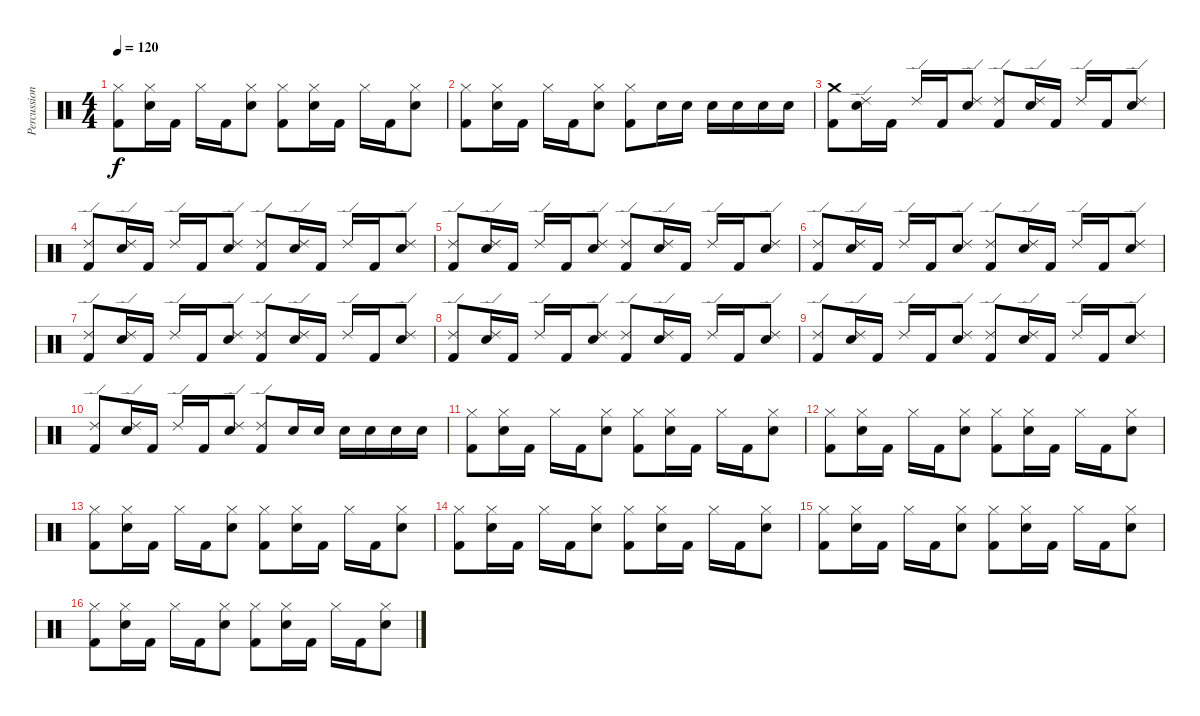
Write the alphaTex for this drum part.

\track ("Percussions" "Percussion") {instrument percussion}
\staff {score}
\articulation defaults
\ts (4 4)
\tempo 120
\clef neutral
\ks c
("Hi-Hat (closed)" "Kick (hit) 2").8{dy f} ("Hi-Hat (closed)" "Snare (hit) 2").16 "Kick (hit) 2".16 "Hi-Hat (closed)".16 "Kick (hit) 2".16 ("Hi-Hat (closed)" "Snare (hit) 2").8 ("Hi-Hat (closed)" "Kick (hit) 2").8 ("Hi-Hat (closed)" "Snare (hit) 2").16 "Kick (hit) 2".16 "Hi-Hat (closed)".16 "Kick (hit) 2".16 ("Hi-Hat (closed)" "Snare (hit) 2").8 |
("Hi-Hat (closed)" "Kick (hit) 2").8 ("Hi-Hat (closed)" "Snare (hit) 2").16 "Kick (hit) 2".16 "Hi-Hat (closed)".16 "Kick (hit) 2".16 ("Hi-Hat (closed)" "Snare (hit) 2").8 ("Hi-Hat (closed)" "Kick (hit) 2").8 "Snare (hit) 2".16 "Snare (hit) 2".16 "Snare (hit) 2".16 "Snare (hit) 2".16 "Snare (hit) 2".16 "Snare (hit) 2".16 |
("Crash medium (hit)" "Kick (hit) 2").8 ("Ride (edge) 2" "Snare (hit) 2").16 "Kick (hit) 2".16 "Ride (edge) 2".16 "Kick (hit) 2".16 ("Ride (edge) 2" "Snare (hit) 2").8 ("Ride (edge) 2" "Kick (hit) 2").8 ("Ride (edge) 2" "Snare (hit) 2").16 "Kick (hit) 2".16 "Ride (edge) 2".16 "Kick (hit) 2".16 ("Ride (edge) 2" "Snare (hit) 2").8 |
("Ride (edge) 2" "Kick (hit) 2").8 ("Ride (edge) 2" "Snare (hit) 2").16 "Kick (hit) 2".16 "Ride (edge) 2".16 "Kick (hit) 2".16 ("Ride (edge) 2" "Snare (hit) 2").8 ("Ride (edge) 2" "Kick (hit) 2").8 ("Ride (edge) 2" "Snare (hit) 2").16 "Kick (hit) 2".16 "Ride (edge) 2".16 "Kick (hit) 2".16 ("Ride (edge) 2" "Snare (hit) 2").8 |
("Ride (edge) 2" "Kick (hit) 2").8 ("Ride (edge) 2" "Snare (hit) 2").16 "Kick (hit) 2".16 "Ride (edge) 2".16 "Kick (hit) 2".16 ("Ride (edge) 2" "Snare (hit) 2").8 ("Ride (edge) 2" "Kick (hit) 2").8 ("Ride (edge) 2" "Snare (hit) 2").16 "Kick (hit) 2".16 "Ride (edge) 2".16 "Kick (hit) 2".16 ("Ride (edge) 2" "Snare (hit) 2").8 |
("Ride (edge) 2" "Kick (hit) 2").8 ("Ride (edge) 2" "Snare (hit) 2").16 "Kick (hit) 2".16 "Ride (edge) 2".16 "Kick (hit) 2".16 ("Ride (edge) 2" "Snare (hit) 2").8 ("Ride (edge) 2" "Kick (hit) 2").8 ("Ride (edge) 2" "Snare (hit) 2").16 "Kick (hit) 2".16 "Ride (edge) 2".16 "Kick (hit) 2".16 ("Ride (edge) 2" "Snare (hit) 2").8 |
("Ride (edge) 2" "Kick (hit) 2").8 ("Ride (edge) 2" "Snare (hit) 2").16 "Kick (hit) 2".16 "Ride (edge) 2".16 "Kick (hit) 2".16 ("Ride (edge) 2" "Snare (hit) 2").8 ("Ride (edge) 2" "Kick (hit) 2").8 ("Ride (edge) 2" "Snare (hit) 2").16 "Kick (hit) 2".16 "Ride (edge) 2".16 "Kick (hit) 2".16 ("Ride (edge) 2" "Snare (hit) 2").8 |
("Ride (edge) 2" "Kick (hit) 2").8 ("Ride (edge) 2" "Snare (hit) 2").16 "Kick (hit) 2".16 "Ride (edge) 2".16 "Kick (hit) 2".16 ("Ride (edge) 2" "Snare (hit) 2").8 ("Ride (edge) 2" "Kick (hit) 2").8 ("Ride (edge) 2" "Snare (hit) 2").16 "Kick (hit) 2".16 "Ride (edge) 2".16 "Kick (hit) 2".16 ("Ride (edge) 2" "Snare (hit) 2").8 |
("Ride (edge) 2" "Kick (hit) 2").8 ("Ride (edge) 2" "Snare (hit) 2").16 "Kick (hit) 2".16 "Ride (edge) 2".16 "Kick (hit) 2".16 ("Ride (edge) 2" "Snare (hit) 2").8 ("Ride (edge) 2" "Kick (hit) 2").8 ("Ride (edge) 2" "Snare (hit) 2").16 "Kick (hit) 2".16 "Ride (edge) 2".16 "Kick (hit) 2".16 ("Ride (edge) 2" "Snare (hit) 2").8 |
("Ride (edge) 2" "Kick (hit) 2").8 ("Ride (edge) 2" "Snare (hit) 2").16 "Kick (hit) 2".16 "Ride (edge) 2".16 "Kick (hit) 2".16 ("Ride (edge) 2" "Snare (hit) 2").8 ("Ride (edge) 2" "Kick (hit) 2").8 "Snare (hit) 2".16 "Snare (hit) 2".16 "Snare (hit) 2".16 "Snare (hit) 2".16 "Snare (hit) 2".16 "Snare (hit) 2".16 |
("Hi-Hat (closed)" "Kick (hit) 2").8 ("Hi-Hat (closed)" "Snare (hit) 2").16 "Kick (hit) 2".16 "Hi-Hat (closed)".16 "Kick (hit) 2".16 ("Hi-Hat (closed)" "Snare (hit) 2").8 ("Hi-Hat (closed)" "Kick (hit) 2").8 ("Hi-Hat (closed)" "Snare (hit) 2").16 "Kick (hit) 2".16 "Hi-Hat (closed)".16 "Kick (hit) 2".16 ("Hi-Hat (closed)" "Snare (hit) 2").8 |
("Hi-Hat (closed)" "Kick (hit) 2").8 ("Hi-Hat (closed)" "Snare (hit) 2").16 "Kick (hit) 2".16 "Hi-Hat (closed)".16 "Kick (hit) 2".16 ("Hi-Hat (closed)" "Snare (hit) 2").8 ("Hi-Hat (closed)" "Kick (hit) 2").8 ("Hi-Hat (closed)" "Snare (hit) 2").16 "Kick (hit) 2".16 "Hi-Hat (closed)".16 "Kick (hit) 2".16 ("Hi-Hat (closed)" "Snare (hit) 2").8 |
("Hi-Hat (closed)" "Kick (hit) 2").8 ("Hi-Hat (closed)" "Snare (hit) 2").16 "Kick (hit) 2".16 "Hi-Hat (closed)".16 "Kick (hit) 2".16 ("Hi-Hat (closed)" "Snare (hit) 2").8 ("Hi-Hat (closed)" "Kick (hit) 2").8 ("Hi-Hat (closed)" "Snare (hit) 2").16 "Kick (hit) 2".16 "Hi-Hat (closed)".16 "Kick (hit) 2".16 ("Hi-Hat (closed)" "Snare (hit) 2").8 |
("Hi-Hat (closed)" "Kick (hit) 2").8 ("Hi-Hat (closed)" "Snare (hit) 2").16 "Kick (hit) 2".16 "Hi-Hat (closed)".16 "Kick (hit) 2".16 ("Hi-Hat (closed)" "Snare (hit) 2").8 ("Hi-Hat (closed)" "Kick (hit) 2").8 ("Hi-Hat (closed)" "Snare (hit) 2").16 "Kick (hit) 2".16 "Hi-Hat (closed)".16 "Kick (hit) 2".16 ("Hi-Hat (closed)" "Snare (hit) 2").8 |
("Hi-Hat (closed)" "Kick (hit) 2").8 ("Hi-Hat (closed)" "Snare (hit) 2").16 "Kick (hit) 2".16 "Hi-Hat (closed)".16 "Kick (hit) 2".16 ("Hi-Hat (closed)" "Snare (hit) 2").8 ("Hi-Hat (closed)" "Kick (hit) 2").8 ("Hi-Hat (closed)" "Snare (hit) 2").16 "Kick (hit) 2".16 "Hi-Hat (closed)".16 "Kick (hit) 2".16 ("Hi-Hat (closed)" "Snare (hit) 2").8 |
("Hi-Hat (closed)" "Kick (hit) 2").8 ("Hi-Hat (closed)" "Snare (hit) 2").16 "Kick (hit) 2".16 "Hi-Hat (closed)".16 "Kick (hit) 2".16 ("Hi-Hat (closed)" "Snare (hit) 2").8 ("Hi-Hat (closed)" "Kick (hit) 2").8 ("Hi-Hat (closed)" "Snare (hit) 2").16 "Kick (hit) 2".16 "Hi-Hat (closed)".16 "Kick (hit) 2".16 ("Hi-Hat (closed)" "Snare (hit) 2").8
